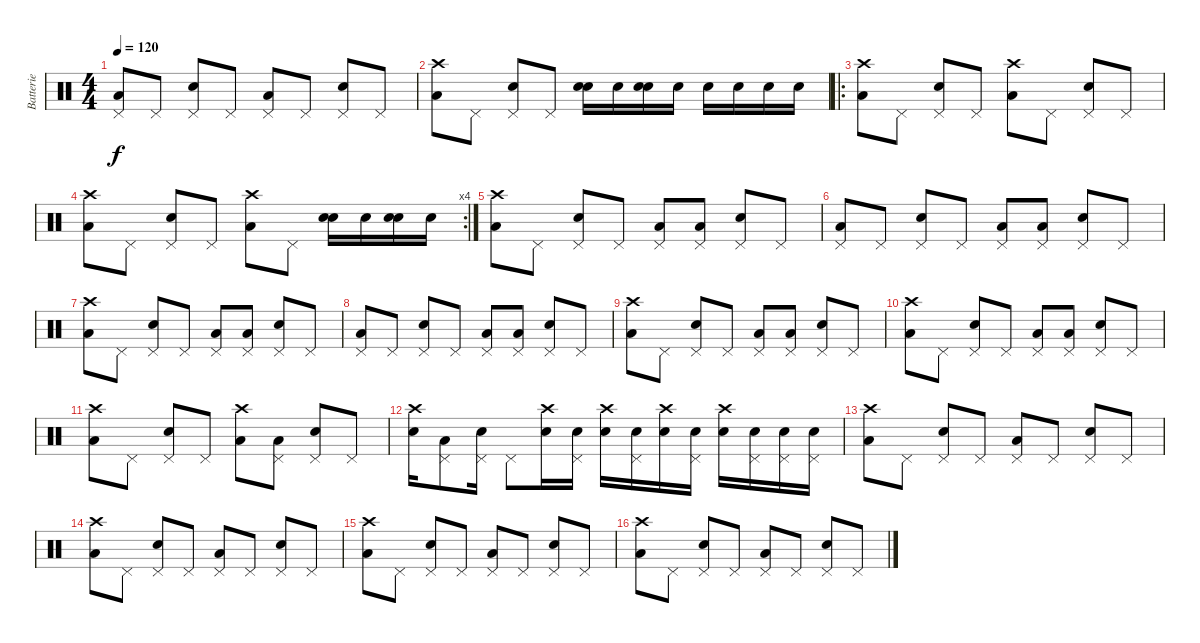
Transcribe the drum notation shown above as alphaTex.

\track ("Batterie" "Batterie") {instrument percussion}
\staff {score}
\articulation defaults
\ts (4 4)
\tempo 120
\clef neutral
\ks c
("Pedal Hi-Hat (hit)" "Low Floor Tom (hit)").8{dy f} "Pedal Hi-Hat (hit)".8 ("Pedal Hi-Hat (hit)" "Electric Snare (hit)").8 "Pedal Hi-Hat (hit)".8 ("Pedal Hi-Hat (hit)" "Low Floor Tom (hit)").8 "Pedal Hi-Hat (hit)".8 ("Pedal Hi-Hat (hit)" "Electric Snare (hit)").8 "Pedal Hi-Hat (hit)".8 |
("Crash high (hit)" "Low Floor Tom (hit)").8 "Pedal Hi-Hat (hit)".8 ("Pedal Hi-Hat (hit)" "Electric Snare (hit)").8 "Pedal Hi-Hat (hit)".8 ("Electric Snare (hit)" "Hand Clap (hit)").16 "Electric Snare (hit)".16 ("Electric Snare (hit)" "Hand Clap (hit)").16 "Electric Snare (hit)".16 "Electric Snare (hit)".16 "Electric Snare (hit)".16 "Electric Snare (hit)".16 "Electric Snare (hit)".16 |
\ro
("Crash high (hit)" "Low Floor Tom (hit)").8 "Pedal Hi-Hat (hit)".8 ("Pedal Hi-Hat (hit)" "Electric Snare (hit)").8 "Pedal Hi-Hat (hit)".8 ("Crash high (hit)" "Low Floor Tom (hit)").8 "Pedal Hi-Hat (hit)".8 ("Pedal Hi-Hat (hit)" "Electric Snare (hit)").8 "Pedal Hi-Hat (hit)".8 |
\rc 4
("Crash high (hit)" "Low Floor Tom (hit)").8 "Pedal Hi-Hat (hit)".8 ("Pedal Hi-Hat (hit)" "Electric Snare (hit)").8 "Pedal Hi-Hat (hit)".8 ("Crash high (hit)" "Low Floor Tom (hit)").8 "Pedal Hi-Hat (hit)".8 ("Electric Snare (hit)" "Hand Clap (hit)").16 "Electric Snare (hit)".16 ("Electric Snare (hit)" "Hand Clap (hit)").16 "Electric Snare (hit)".16 |
("Crash high (hit)" "Low Floor Tom (hit)").8 "Pedal Hi-Hat (hit)".8 ("Pedal Hi-Hat (hit)" "Electric Snare (hit)").8 "Pedal Hi-Hat (hit)".8 ("Pedal Hi-Hat (hit)" "Low Floor Tom (hit)").8 ("Pedal Hi-Hat (hit)" "Low Floor Tom (hit)").8 ("Pedal Hi-Hat (hit)" "Electric Snare (hit)").8 "Pedal Hi-Hat (hit)".8 |
("Pedal Hi-Hat (hit)" "Low Floor Tom (hit)").8 "Pedal Hi-Hat (hit)".8 ("Pedal Hi-Hat (hit)" "Electric Snare (hit)").8 "Pedal Hi-Hat (hit)".8 ("Pedal Hi-Hat (hit)" "Low Floor Tom (hit)").8 ("Pedal Hi-Hat (hit)" "Low Floor Tom (hit)").8 ("Pedal Hi-Hat (hit)" "Electric Snare (hit)").8 "Pedal Hi-Hat (hit)".8 |
("Crash high (hit)" "Low Floor Tom (hit)").8 "Pedal Hi-Hat (hit)".8 ("Pedal Hi-Hat (hit)" "Electric Snare (hit)").8 "Pedal Hi-Hat (hit)".8 ("Pedal Hi-Hat (hit)" "Low Floor Tom (hit)").8 ("Pedal Hi-Hat (hit)" "Low Floor Tom (hit)").8 ("Pedal Hi-Hat (hit)" "Electric Snare (hit)").8 "Pedal Hi-Hat (hit)".8 |
("Pedal Hi-Hat (hit)" "Low Floor Tom (hit)").8 "Pedal Hi-Hat (hit)".8 ("Pedal Hi-Hat (hit)" "Electric Snare (hit)").8 "Pedal Hi-Hat (hit)".8 ("Pedal Hi-Hat (hit)" "Low Floor Tom (hit)").8 ("Pedal Hi-Hat (hit)" "Low Floor Tom (hit)").8 ("Pedal Hi-Hat (hit)" "Electric Snare (hit)").8 "Pedal Hi-Hat (hit)".8 |
("Crash high (hit)" "Low Floor Tom (hit)").8 "Pedal Hi-Hat (hit)".8 ("Pedal Hi-Hat (hit)" "Electric Snare (hit)").8 "Pedal Hi-Hat (hit)".8 ("Pedal Hi-Hat (hit)" "Low Floor Tom (hit)").8 ("Pedal Hi-Hat (hit)" "Low Floor Tom (hit)").8 ("Pedal Hi-Hat (hit)" "Electric Snare (hit)").8 "Pedal Hi-Hat (hit)".8 |
("Crash high (hit)" "Low Floor Tom (hit)").8 "Pedal Hi-Hat (hit)".8 ("Pedal Hi-Hat (hit)" "Electric Snare (hit)").8 "Pedal Hi-Hat (hit)".8 ("Pedal Hi-Hat (hit)" "Low Floor Tom (hit)").8 ("Pedal Hi-Hat (hit)" "Low Floor Tom (hit)").8 ("Pedal Hi-Hat (hit)" "Electric Snare (hit)").8 "Pedal Hi-Hat (hit)".8 |
("Crash high (hit)" "Low Floor Tom (hit)").8 "Pedal Hi-Hat (hit)".8 ("Pedal Hi-Hat (hit)" "Electric Snare (hit)").8 "Pedal Hi-Hat (hit)".8 ("Crash high (hit)" "Low Floor Tom (hit)").8 ("Pedal Hi-Hat (hit)" "Low Floor Tom (hit)").8 ("Pedal Hi-Hat (hit)" "Electric Snare (hit)").8 "Pedal Hi-Hat (hit)".8 |
("Crash high (hit)" "Electric Snare (hit)").16 ("Pedal Hi-Hat (hit)" "Low Floor Tom (hit)").8 ("Pedal Hi-Hat (hit)" "Electric Snare (hit)").16 "Pedal Hi-Hat (hit)".8 ("Crash high (hit)" "Electric Snare (hit)").16 ("Pedal Hi-Hat (hit)" "Electric Snare (hit)").16 ("Crash high (hit)" "Electric Snare (hit)").16 ("Pedal Hi-Hat (hit)" "Electric Snare (hit)").16 ("Crash high (hit)" "Electric Snare (hit)").16 ("Pedal Hi-Hat (hit)" "Electric Snare (hit)").16 ("Crash high (hit)" "Electric Snare (hit)").16 ("Pedal Hi-Hat (hit)" "Electric Snare (hit)").16 ("Pedal Hi-Hat (hit)" "Electric Snare (hit)").16 ("Pedal Hi-Hat (hit)" "Electric Snare (hit)").16 |
("Crash high (hit)" "Low Floor Tom (hit)").8 "Pedal Hi-Hat (hit)".8 ("Pedal Hi-Hat (hit)" "Electric Snare (hit)").8 "Pedal Hi-Hat (hit)".8 ("Pedal Hi-Hat (hit)" "Low Floor Tom (hit)").8 "Pedal Hi-Hat (hit)".8 ("Pedal Hi-Hat (hit)" "Electric Snare (hit)").8 "Pedal Hi-Hat (hit)".8 |
("Crash high (hit)" "Low Floor Tom (hit)").8 "Pedal Hi-Hat (hit)".8 ("Pedal Hi-Hat (hit)" "Electric Snare (hit)").8 "Pedal Hi-Hat (hit)".8 ("Pedal Hi-Hat (hit)" "Low Floor Tom (hit)").8 "Pedal Hi-Hat (hit)".8 ("Pedal Hi-Hat (hit)" "Electric Snare (hit)").8 "Pedal Hi-Hat (hit)".8 |
("Crash high (hit)" "Low Floor Tom (hit)").8 "Pedal Hi-Hat (hit)".8 ("Pedal Hi-Hat (hit)" "Electric Snare (hit)").8 "Pedal Hi-Hat (hit)".8 ("Pedal Hi-Hat (hit)" "Low Floor Tom (hit)").8 "Pedal Hi-Hat (hit)".8 ("Pedal Hi-Hat (hit)" "Electric Snare (hit)").8 "Pedal Hi-Hat (hit)".8 |
("Crash high (hit)" "Low Floor Tom (hit)").8 "Pedal Hi-Hat (hit)".8 ("Pedal Hi-Hat (hit)" "Electric Snare (hit)").8 "Pedal Hi-Hat (hit)".8 ("Pedal Hi-Hat (hit)" "Low Floor Tom (hit)").8 "Pedal Hi-Hat (hit)".8 ("Pedal Hi-Hat (hit)" "Electric Snare (hit)").8 "Pedal Hi-Hat (hit)".8
